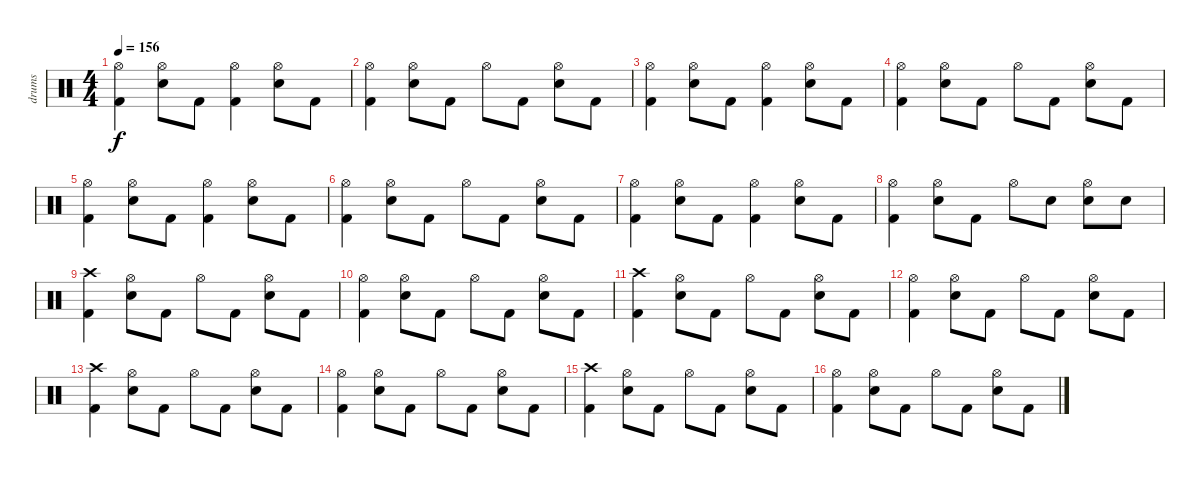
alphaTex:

\track ("drums" "drums") {instrument percussion}
\staff {score}
\articulation defaults
\ts (4 4)
\tempo 156
\clef neutral
\ks c
("Kick (hit) 2" "Hi-Hat (open)").4{dy f} ("Electric Snare (hit)" "Hi-Hat (open)").8 "Kick (hit) 2".8 ("Kick (hit) 2" "Hi-Hat (open)").4 ("Electric Snare (hit)" "Hi-Hat (open)").8 "Kick (hit) 2".8 |
("Kick (hit) 2" "Hi-Hat (open)").4 ("Electric Snare (hit)" "Hi-Hat (open)").8 "Kick (hit) 2".8 "Hi-Hat (open)".8 "Kick (hit) 2".8 ("Electric Snare (hit)" "Hi-Hat (open)").8 "Kick (hit) 2".8 |
("Kick (hit) 2" "Hi-Hat (open)").4 ("Electric Snare (hit)" "Hi-Hat (open)").8 "Kick (hit) 2".8 ("Kick (hit) 2" "Hi-Hat (open)").4 ("Electric Snare (hit)" "Hi-Hat (open)").8 "Kick (hit) 2".8 |
("Kick (hit) 2" "Hi-Hat (open)").4 ("Electric Snare (hit)" "Hi-Hat (open)").8 "Kick (hit) 2".8 "Hi-Hat (open)".8 "Kick (hit) 2".8 ("Electric Snare (hit)" "Hi-Hat (open)").8 "Kick (hit) 2".8 |
("Kick (hit) 2" "Hi-Hat (open)").4 ("Electric Snare (hit)" "Hi-Hat (open)").8 "Kick (hit) 2".8 ("Kick (hit) 2" "Hi-Hat (open)").4 ("Electric Snare (hit)" "Hi-Hat (open)").8 "Kick (hit) 2".8 |
("Kick (hit) 2" "Hi-Hat (open)").4 ("Electric Snare (hit)" "Hi-Hat (open)").8 "Kick (hit) 2".8 "Hi-Hat (open)".8 "Kick (hit) 2".8 ("Electric Snare (hit)" "Hi-Hat (open)").8 "Kick (hit) 2".8 |
("Kick (hit) 2" "Hi-Hat (open)").4 ("Electric Snare (hit)" "Hi-Hat (open)").8 "Kick (hit) 2".8 ("Kick (hit) 2" "Hi-Hat (open)").4 ("Electric Snare (hit)" "Hi-Hat (open)").8 "Kick (hit) 2".8 |
("Kick (hit) 2" "Hi-Hat (open)").4 ("Electric Snare (hit)" "Hi-Hat (open)").8 "Kick (hit) 2".8 "Hi-Hat (open)".8 "Electric Snare (hit)".8 ("Electric Snare (hit)" "Hi-Hat (open)").8 "Electric Snare (hit)".8 |
("Kick (hit) 2" "Crash high (hit)").4 ("Electric Snare (hit)" "Hi-Hat (open)").8 "Kick (hit) 2".8 "Hi-Hat (open)".8 "Kick (hit) 2".8 ("Electric Snare (hit)" "Hi-Hat (open)").8 "Kick (hit) 2".8 |
("Kick (hit) 2" "Hi-Hat (open)").4 ("Electric Snare (hit)" "Hi-Hat (open)").8 "Kick (hit) 2".8 "Hi-Hat (open)".8 "Kick (hit) 2".8 ("Electric Snare (hit)" "Hi-Hat (open)").8 "Kick (hit) 2".8 |
("Kick (hit) 2" "Crash high (hit)").4 ("Electric Snare (hit)" "Hi-Hat (open)").8 "Kick (hit) 2".8 "Hi-Hat (open)".8 "Kick (hit) 2".8 ("Electric Snare (hit)" "Hi-Hat (open)").8 "Kick (hit) 2".8 |
("Kick (hit) 2" "Hi-Hat (open)").4 ("Electric Snare (hit)" "Hi-Hat (open)").8 "Kick (hit) 2".8 "Hi-Hat (open)".8 "Kick (hit) 2".8 ("Electric Snare (hit)" "Hi-Hat (open)").8 "Kick (hit) 2".8 |
("Kick (hit) 2" "Crash high (hit)").4 ("Electric Snare (hit)" "Hi-Hat (open)").8 "Kick (hit) 2".8 "Hi-Hat (open)".8 "Kick (hit) 2".8 ("Electric Snare (hit)" "Hi-Hat (open)").8 "Kick (hit) 2".8 |
("Kick (hit) 2" "Hi-Hat (open)").4 ("Electric Snare (hit)" "Hi-Hat (open)").8 "Kick (hit) 2".8 "Hi-Hat (open)".8 "Kick (hit) 2".8 ("Electric Snare (hit)" "Hi-Hat (open)").8 "Kick (hit) 2".8 |
("Kick (hit) 2" "Crash high (hit)").4 ("Electric Snare (hit)" "Hi-Hat (open)").8 "Kick (hit) 2".8 "Hi-Hat (open)".8 "Kick (hit) 2".8 ("Electric Snare (hit)" "Hi-Hat (open)").8 "Kick (hit) 2".8 |
("Kick (hit) 2" "Hi-Hat (open)").4 ("Electric Snare (hit)" "Hi-Hat (open)").8 "Kick (hit) 2".8 "Hi-Hat (open)".8 "Kick (hit) 2".8 ("Electric Snare (hit)" "Hi-Hat (open)").8 "Kick (hit) 2".8
